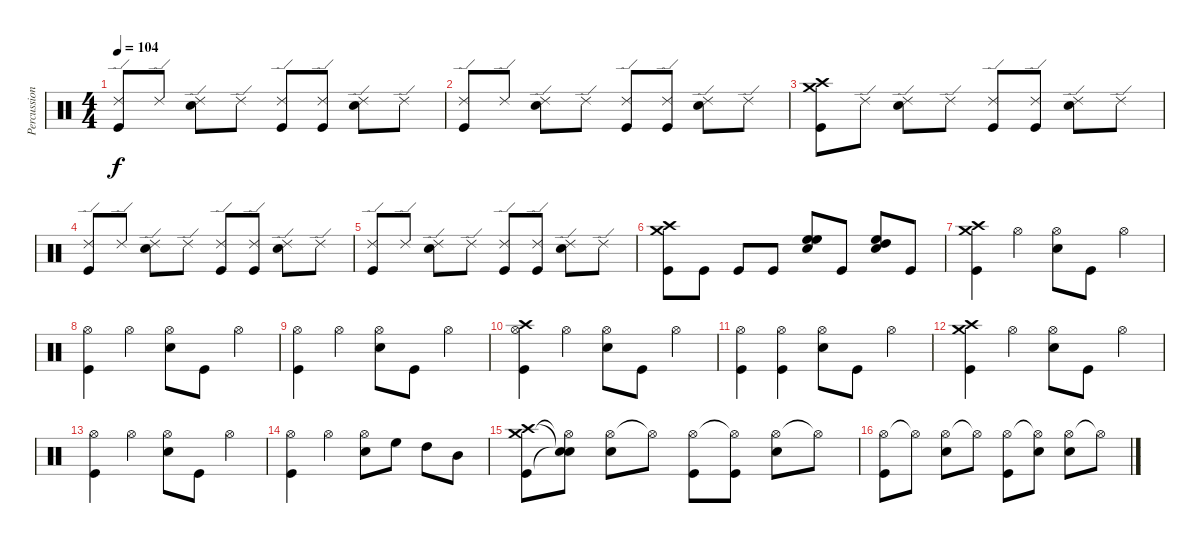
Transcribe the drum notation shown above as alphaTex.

\track ("Percussion" "Percussion") {instrument percussion}
\staff {score}
\articulation defaults
\ts (4 4)
\tempo 104
\clef neutral
\ks c
("Ride (edge) 2" "Kick (hit)").8{dy f} "Ride (edge) 2".8 ("Ride (edge) 2" "Snare (hit) 2").8 "Ride (edge) 2".8 ("Ride (edge) 2" "Kick (hit)").8 ("Ride (edge) 2" "Kick (hit)").8 ("Ride (edge) 2" "Snare (hit) 2").8 "Ride (edge) 2".8 |
("Ride (edge) 2" "Kick (hit)").8 "Ride (edge) 2".8 ("Ride (edge) 2" "Snare (hit) 2").8 "Ride (edge) 2".8 ("Ride (edge) 2" "Kick (hit)").8 ("Ride (edge) 2" "Kick (hit)").8 ("Ride (edge) 2" "Snare (hit) 2").8 "Ride (edge) 2".8 |
("Crash high (hit)" "Crash medium (hit)" "Kick (hit)").8 "Ride (edge) 2".8 ("Ride (edge) 2" "Snare (hit) 2").8 "Ride (edge) 2".8 ("Ride (edge) 2" "Kick (hit)").8 ("Ride (edge) 2" "Kick (hit)").8 ("Ride (edge) 2" "Snare (hit) 2").8 "Ride (edge) 2".8 |
("Ride (edge) 2" "Kick (hit)").8 "Ride (edge) 2".8 ("Ride (edge) 2" "Snare (hit) 2").8 "Ride (edge) 2".8 ("Ride (edge) 2" "Kick (hit)").8 ("Ride (edge) 2" "Kick (hit)").8 ("Ride (edge) 2" "Snare (hit) 2").8 "Ride (edge) 2".8 |
("Ride (edge) 2" "Kick (hit)").8 "Ride (edge) 2".8 ("Ride (edge) 2" "Snare (hit) 2").8 "Ride (edge) 2".8 ("Ride (edge) 2" "Kick (hit)").8 ("Ride (edge) 2" "Kick (hit)").8 ("Ride (edge) 2" "Snare (hit) 2").8 "Ride (edge) 2".8 |
("Crash medium (hit)" "Crash high (hit)" "Kick (hit)").8 "Kick (hit)".8 "Kick (hit)".8 "Kick (hit)".8 ("Electric Snare (hit)" "High Floor Tom (hit)" "High Floor Tom (hit)").8 "Kick (hit)".8 ("Snare (hit) 2" "High Floor Tom (hit)" "High Tom (hit)").8 "Kick (hit)".8 |
("Crash medium (hit)" "Crash high (hit)" "Kick (hit)").4 "Hi-Hat (open)".4 ("Hi-Hat (open)" "Snare (hit) 2").8 "Kick (hit)".8 "Hi-Hat (open)".4 |
("Hi-Hat (open)" "Kick (hit)").4 "Hi-Hat (open)".4 ("Hi-Hat (open)" "Snare (hit) 2").8 "Kick (hit)".8 "Hi-Hat (open)".4 |
("Hi-Hat (open)" "Kick (hit)").4 "Hi-Hat (open)".4 ("Hi-Hat (open)" "Snare (hit) 2").8 "Kick (hit)".8 "Hi-Hat (open)".4 |
("Hi-Hat (open)" "Crash high (hit)" "Kick (hit)").4 "Hi-Hat (open)".4 ("Hi-Hat (open)" "Snare (hit) 2").8 "Kick (hit)".8 "Hi-Hat (open)".4 |
("Hi-Hat (open)" "Kick (hit)").4 ("Hi-Hat (open)" "Kick (hit)").4 ("Hi-Hat (open)" "Snare (hit) 2").8 "Kick (hit)".8 "Hi-Hat (open)".4 |
("Crash medium (hit)" "Crash high (hit)" "Kick (hit)").4 "Hi-Hat (open)".4 ("Hi-Hat (open)" "Snare (hit) 2").8 "Kick (hit)".8 "Hi-Hat (open)".4 |
("Hi-Hat (open)" "Kick (hit)").4 "Hi-Hat (open)".4 ("Hi-Hat (open)" "Snare (hit) 2").8 "Kick (hit)".8 "Hi-Hat (open)".4 |
("Hi-Hat (open)" "Kick (hit)").4 "Hi-Hat (open)".4 ("Hi-Hat (open)" "Snare (hit) 2").8 "High Floor Tom (hit)".8 "High Tom (hit)".8 "Mid Tom (hit)".8 |
("Crash medium (hit)" "Crash high (hit)" "Kick (hit)").8 ("Hi-Hat (open)"{t} "Snare (hit)"{t} "Snare (hit)"{t}).8 ("Hi-Hat (open)" "Snare (hit) 2").8 "Hi-Hat (open)"{t}.8 ("Hi-Hat (open)" "Kick (hit)").8 ("Hi-Hat (open)"{t} "Kick (hit)").8 ("Hi-Hat (open)" "Snare (hit) 2").8 "Hi-Hat (open)"{t}.8 |
("Hi-Hat (open)" "Kick (hit)").8 "Hi-Hat (open)"{t}.8 ("Hi-Hat (open)" "Snare (hit) 2").8 "Hi-Hat (open)"{t}.8 ("Hi-Hat (open)" "Kick (hit)").8 ("Hi-Hat (open)"{t} "Snare (hit) 2").8 ("Hi-Hat (open)" "Snare (hit) 2").8 "Hi-Hat (open)"{t}.8
